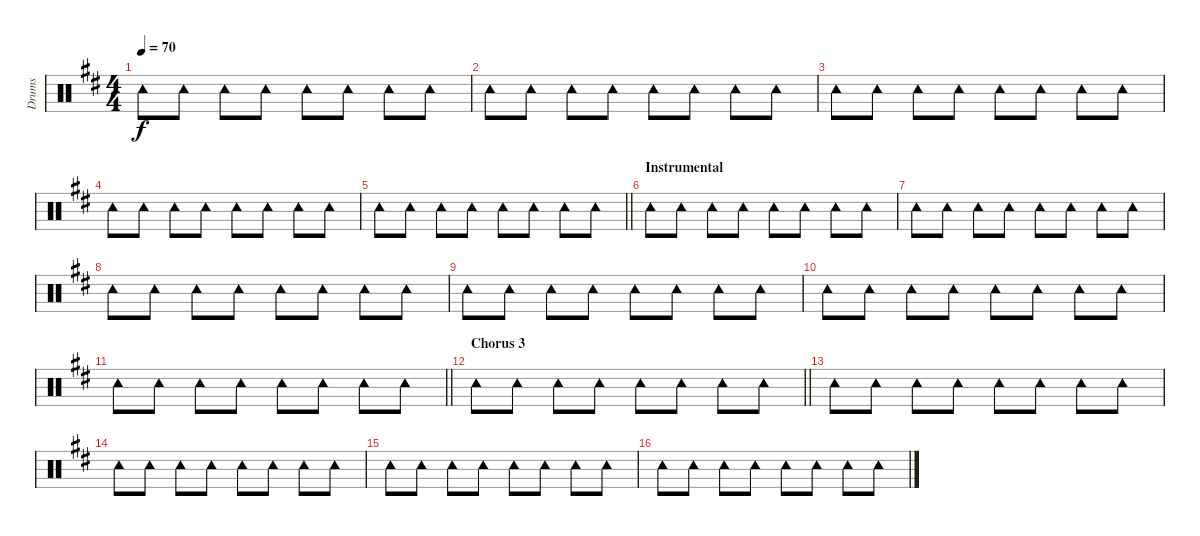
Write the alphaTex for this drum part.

\track ("Drums" "Drums") {instrument percussion}
\staff {score}
\articulation defaults
\ts (4 4)
\tempo 70
\clef neutral
\ks bminor "Tambourine (hit)".8{dy f} "Tambourine (hit)".8 "Tambourine (hit)".8 "Tambourine (hit)".8 "Tambourine (hit)".8 "Tambourine (hit)".8 "Tambourine (hit)".8 "Tambourine (hit)".8
|
"Tambourine (hit)".8 "Tambourine (hit)".8 "Tambourine (hit)".8 "Tambourine (hit)".8 "Tambourine (hit)".8 "Tambourine (hit)".8 "Tambourine (hit)".8 "Tambourine (hit)".8 |
"Tambourine (hit)".8 "Tambourine (hit)".8 "Tambourine (hit)".8 "Tambourine (hit)".8 "Tambourine (hit)".8 "Tambourine (hit)".8 "Tambourine (hit)".8 "Tambourine (hit)".8 |
"Tambourine (hit)".8 "Tambourine (hit)".8 "Tambourine (hit)".8 "Tambourine (hit)".8 "Tambourine (hit)".8 "Tambourine (hit)".8 "Tambourine (hit)".8 "Tambourine (hit)".8 |
\barLineRight lightlight "Tambourine (hit)".8 "Tambourine (hit)".8 "Tambourine (hit)".8 "Tambourine (hit)".8 "Tambourine (hit)".8 "Tambourine (hit)".8 "Tambourine (hit)".8 "Tambourine (hit)".8
|
\section ("" "Instrumental")
"Tambourine (hit)".8 "Tambourine (hit)".8 "Tambourine (hit)".8 "Tambourine (hit)".8 "Tambourine (hit)".8 "Tambourine (hit)".8 "Tambourine (hit)".8 "Tambourine (hit)".8 |
"Tambourine (hit)".8 "Tambourine (hit)".8 "Tambourine (hit)".8 "Tambourine (hit)".8 "Tambourine (hit)".8 "Tambourine (hit)".8 "Tambourine (hit)".8 "Tambourine (hit)".8 |
"Tambourine (hit)".8 "Tambourine (hit)".8 "Tambourine (hit)".8 "Tambourine (hit)".8 "Tambourine (hit)".8 "Tambourine (hit)".8 "Tambourine (hit)".8 "Tambourine (hit)".8 |
"Tambourine (hit)".8 "Tambourine (hit)".8 "Tambourine (hit)".8 "Tambourine (hit)".8 "Tambourine (hit)".8 "Tambourine (hit)".8 "Tambourine (hit)".8 "Tambourine (hit)".8 |
"Tambourine (hit)".8 "Tambourine (hit)".8 "Tambourine (hit)".8 "Tambourine (hit)".8 "Tambourine (hit)".8 "Tambourine (hit)".8 "Tambourine (hit)".8 "Tambourine (hit)".8 |
\barLineRight lightlight "Tambourine (hit)".8 "Tambourine (hit)".8 "Tambourine (hit)".8 "Tambourine (hit)".8 "Tambourine (hit)".8 "Tambourine (hit)".8 "Tambourine (hit)".8 "Tambourine (hit)".8
|
\section ("" "Chorus 3")
\barLineRight lightlight "Tambourine (hit)".8 "Tambourine (hit)".8 "Tambourine (hit)".8 "Tambourine (hit)".8 "Tambourine (hit)".8 "Tambourine (hit)".8 "Tambourine (hit)".8 "Tambourine (hit)".8
|
\section ("" "")
"Tambourine (hit)".8 "Tambourine (hit)".8 "Tambourine (hit)".8 "Tambourine (hit)".8 "Tambourine (hit)".8 "Tambourine (hit)".8 "Tambourine (hit)".8 "Tambourine (hit)".8 |
"Tambourine (hit)".8 "Tambourine (hit)".8 "Tambourine (hit)".8 "Tambourine (hit)".8 "Tambourine (hit)".8 "Tambourine (hit)".8 "Tambourine (hit)".8 "Tambourine (hit)".8 |
"Tambourine (hit)".8 "Tambourine (hit)".8 "Tambourine (hit)".8 "Tambourine (hit)".8 "Tambourine (hit)".8 "Tambourine (hit)".8 "Tambourine (hit)".8 "Tambourine (hit)".8 |
"Tambourine (hit)".8 "Tambourine (hit)".8 "Tambourine (hit)".8 "Tambourine (hit)".8 "Tambourine (hit)".8 "Tambourine (hit)".8 "Tambourine (hit)".8 "Tambourine (hit)".8
